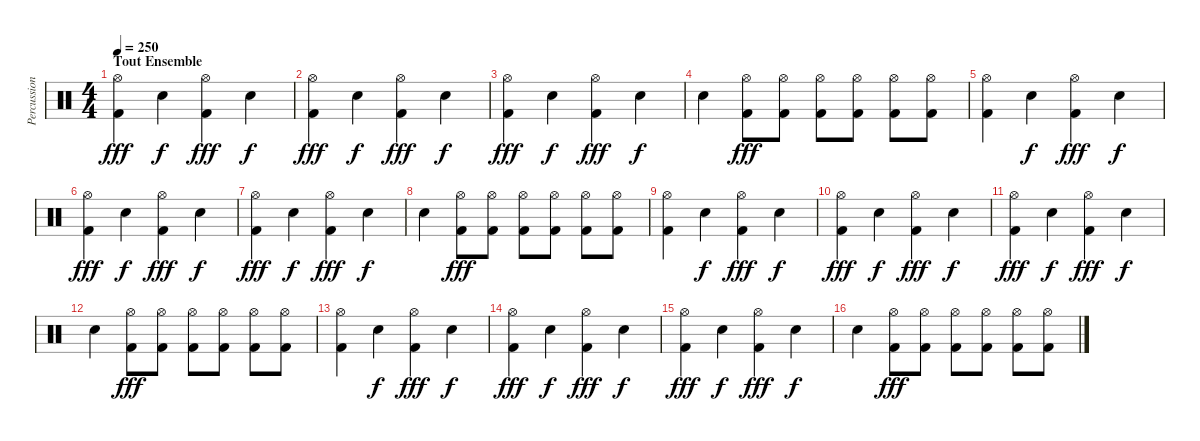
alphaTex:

\track ("Percussions" "Percussion") {instrument percussion}
\staff {score}
\articulation defaults
\ts (4 4)
\section ("" "Tout Ensemble")
\tempo 250
\clef neutral
\ks c
("Kick (hit) 2" "Hi-Hat (open)").4{dy fff} "Snare (hit) 2".4{dy f} ("Kick (hit) 2" "Hi-Hat (open)").4{dy fff} "Snare (hit) 2".4{dy f} |
("Kick (hit) 2" "Hi-Hat (open)").4{dy fff} "Snare (hit) 2".4{dy f} ("Kick (hit) 2" "Hi-Hat (open)").4{dy fff} "Snare (hit) 2".4{dy f} |
("Kick (hit) 2" "Hi-Hat (open)").4{dy fff} "Snare (hit) 2".4{dy f} ("Kick (hit) 2" "Hi-Hat (open)").4{dy fff} "Snare (hit) 2".4{dy f} |
"Snare (hit) 2".4 ("Kick (hit) 2" "Hi-Hat (open)").8{dy fff} ("Kick (hit) 2" "Hi-Hat (open)").8 ("Kick (hit) 2" "Hi-Hat (open)").8 ("Kick (hit) 2" "Hi-Hat (open)").8 ("Kick (hit) 2" "Hi-Hat (open)").8 ("Kick (hit) 2" "Hi-Hat (open)").8 |
("Kick (hit) 2" "Hi-Hat (open)").4 "Snare (hit) 2".4{dy f} ("Kick (hit) 2" "Hi-Hat (open)").4{dy fff} "Snare (hit) 2".4{dy f} |
("Kick (hit) 2" "Hi-Hat (open)").4{dy fff} "Snare (hit) 2".4{dy f} ("Kick (hit) 2" "Hi-Hat (open)").4{dy fff} "Snare (hit) 2".4{dy f} |
("Kick (hit) 2" "Hi-Hat (open)").4{dy fff} "Snare (hit) 2".4{dy f} ("Kick (hit) 2" "Hi-Hat (open)").4{dy fff} "Snare (hit) 2".4{dy f} |
"Snare (hit) 2".4 ("Kick (hit) 2" "Hi-Hat (open)").8{dy fff} ("Kick (hit) 2" "Hi-Hat (open)").8 ("Kick (hit) 2" "Hi-Hat (open)").8 ("Kick (hit) 2" "Hi-Hat (open)").8 ("Kick (hit) 2" "Hi-Hat (open)").8 ("Kick (hit) 2" "Hi-Hat (open)").8 |
("Kick (hit) 2" "Hi-Hat (open)").4 "Snare (hit) 2".4{dy f} ("Kick (hit) 2" "Hi-Hat (open)").4{dy fff} "Snare (hit) 2".4{dy f} |
("Kick (hit) 2" "Hi-Hat (open)").4{dy fff} "Snare (hit) 2".4{dy f} ("Kick (hit) 2" "Hi-Hat (open)").4{dy fff} "Snare (hit) 2".4{dy f} |
("Kick (hit) 2" "Hi-Hat (open)").4{dy fff} "Snare (hit) 2".4{dy f} ("Kick (hit) 2" "Hi-Hat (open)").4{dy fff} "Snare (hit) 2".4{dy f} |
"Snare (hit) 2".4 ("Kick (hit) 2" "Hi-Hat (open)").8{dy fff} ("Kick (hit) 2" "Hi-Hat (open)").8 ("Kick (hit) 2" "Hi-Hat (open)").8 ("Kick (hit) 2" "Hi-Hat (open)").8 ("Kick (hit) 2" "Hi-Hat (open)").8 ("Kick (hit) 2" "Hi-Hat (open)").8 |
("Kick (hit) 2" "Hi-Hat (open)").4 "Snare (hit) 2".4{dy f} ("Kick (hit) 2" "Hi-Hat (open)").4{dy fff} "Snare (hit) 2".4{dy f} |
("Kick (hit) 2" "Hi-Hat (open)").4{dy fff} "Snare (hit) 2".4{dy f} ("Kick (hit) 2" "Hi-Hat (open)").4{dy fff} "Snare (hit) 2".4{dy f} |
("Kick (hit) 2" "Hi-Hat (open)").4{dy fff} "Snare (hit) 2".4{dy f} ("Kick (hit) 2" "Hi-Hat (open)").4{dy fff} "Snare (hit) 2".4{dy f} |
"Snare (hit) 2".4 ("Kick (hit) 2" "Hi-Hat (open)").8{dy fff} ("Kick (hit) 2" "Hi-Hat (open)").8 ("Kick (hit) 2" "Hi-Hat (open)").8 ("Kick (hit) 2" "Hi-Hat (open)").8 ("Kick (hit) 2" "Hi-Hat (open)").8 ("Kick (hit) 2" "Hi-Hat (open)").8
